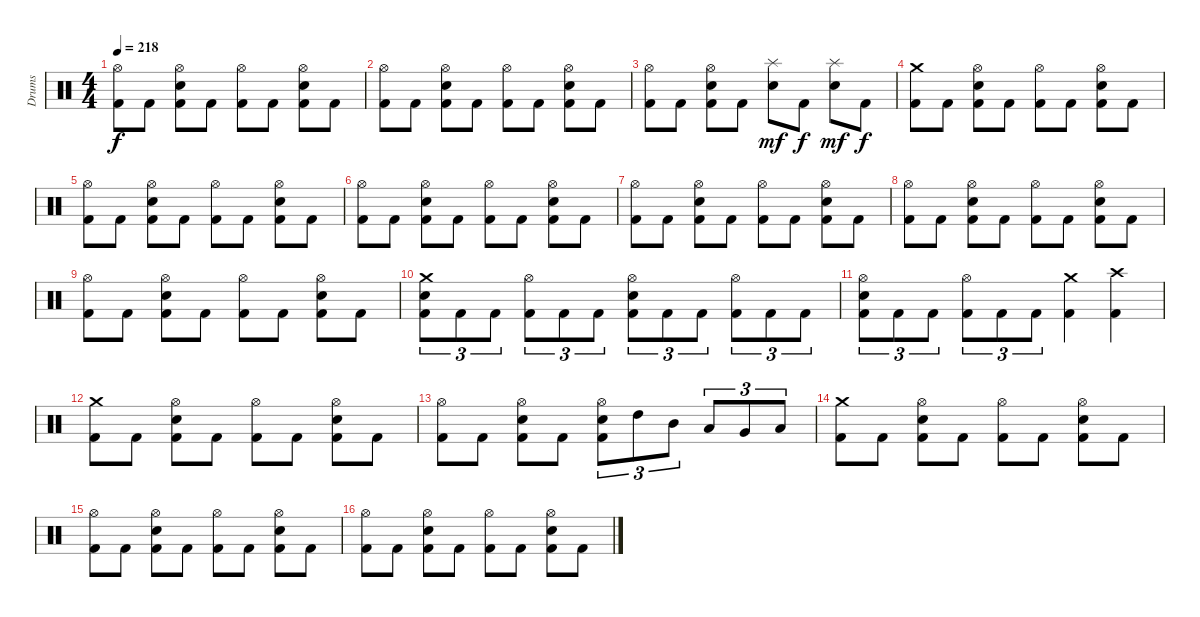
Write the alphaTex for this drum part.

\track ("Drums" "Drums") {instrument percussion}
\staff {score}
\articulation defaults
\ts (4 4)
\tempo 218
\clef neutral
\ks c
("Hi-Hat (open)" "Kick (hit) 2").8{dy f} "Kick (hit) 2".8 ("Hi-Hat (open)" "Snare (hit) 2" "Kick (hit) 2").8 "Kick (hit) 2".8 ("Hi-Hat (open)" "Kick (hit) 2").8 "Kick (hit) 2".8 ("Hi-Hat (open)" "Snare (hit) 2" "Kick (hit) 2").8 "Kick (hit) 2".8 |
("Hi-Hat (open)" "Kick (hit) 2").8 "Kick (hit) 2".8 ("Hi-Hat (open)" "Snare (hit) 2" "Kick (hit) 2").8 "Kick (hit) 2".8 ("Hi-Hat (open)" "Kick (hit) 2").8 "Kick (hit) 2".8 ("Hi-Hat (open)" "Snare (hit) 2" "Kick (hit) 2").8 "Kick (hit) 2".8 |
("Hi-Hat (open)" "Kick (hit) 2").8 "Kick (hit) 2".8 ("Hi-Hat (open)" "Snare (hit) 2" "Kick (hit) 2").8 "Kick (hit) 2".8 ("Splash (hit)" "Snare (hit) 2").8{dy mf} "Kick (hit) 2".8{dy f} ("Splash (hit)" "Snare (hit) 2").8{dy mf} "Kick (hit) 2".8{dy f} |
("Crash medium (hit)" "Kick (hit) 2").8 "Kick (hit) 2".8 ("Hi-Hat (open)" "Snare (hit) 2" "Kick (hit) 2").8 "Kick (hit) 2".8 ("Hi-Hat (open)" "Kick (hit) 2").8 "Kick (hit) 2".8 ("Hi-Hat (open)" "Snare (hit) 2" "Kick (hit) 2").8 "Kick (hit) 2".8 |
("Hi-Hat (open)" "Kick (hit) 2").8 "Kick (hit) 2".8 ("Hi-Hat (open)" "Snare (hit) 2" "Kick (hit) 2").8 "Kick (hit) 2".8 ("Hi-Hat (open)" "Kick (hit) 2").8 "Kick (hit) 2".8 ("Hi-Hat (open)" "Snare (hit) 2" "Kick (hit) 2").8 "Kick (hit) 2".8 |
("Hi-Hat (open)" "Kick (hit) 2").8 "Kick (hit) 2".8 ("Hi-Hat (open)" "Snare (hit) 2" "Kick (hit) 2").8 "Kick (hit) 2".8 ("Hi-Hat (open)" "Kick (hit) 2").8 "Kick (hit) 2".8 ("Hi-Hat (open)" "Snare (hit) 2" "Kick (hit) 2").8 "Kick (hit) 2".8 |
("Hi-Hat (open)" "Kick (hit) 2").8 "Kick (hit) 2".8 ("Hi-Hat (open)" "Snare (hit) 2" "Kick (hit) 2").8 "Kick (hit) 2".8 ("Hi-Hat (open)" "Kick (hit) 2").8 "Kick (hit) 2".8 ("Hi-Hat (open)" "Snare (hit) 2" "Kick (hit) 2").8 "Kick (hit) 2".8 |
("Hi-Hat (open)" "Kick (hit) 2").8 "Kick (hit) 2".8 ("Hi-Hat (open)" "Snare (hit) 2" "Kick (hit) 2").8 "Kick (hit) 2".8 ("Hi-Hat (open)" "Kick (hit) 2").8 "Kick (hit) 2".8 ("Hi-Hat (open)" "Snare (hit) 2" "Kick (hit) 2").8 "Kick (hit) 2".8 |
("Hi-Hat (open)" "Kick (hit) 2").8 "Kick (hit) 2".8 ("Hi-Hat (open)" "Snare (hit) 2" "Kick (hit) 2").8 "Kick (hit) 2".8 ("Hi-Hat (open)" "Kick (hit) 2").8 "Kick (hit) 2".8 ("Hi-Hat (open)" "Snare (hit) 2" "Kick (hit) 2").8 "Kick (hit) 2".8 |
("Crash medium (hit)" "Snare (hit) 2" "Kick (hit) 2").8{tu (3 2)} "Kick (hit) 2".8{tu (3 2)} "Kick (hit) 2".8{tu (3 2)} ("Hi-Hat (open)" "Kick (hit) 2").8{tu (3 2)} "Kick (hit) 2".8{tu (3 2)} "Kick (hit) 2".8{tu (3 2)} ("Hi-Hat (open)" "Snare (hit) 2" "Kick (hit) 2").8{tu (3 2)} "Kick (hit) 2".8{tu (3 2)} "Kick (hit) 2".8{tu (3 2)} ("Hi-Hat (open)" "Kick (hit) 2").8{tu (3 2)} "Kick (hit) 2".8{tu (3 2)} "Kick (hit) 2".8{tu (3 2)} |
("Hi-Hat (open)" "Snare (hit) 2" "Kick (hit) 2").8{tu (3 2)} "Kick (hit) 2".8{tu (3 2)} "Kick (hit) 2".8{tu (3 2)} ("Hi-Hat (open)" "Kick (hit) 2").8{tu (3 2)} "Kick (hit) 2".8{tu (3 2)} "Kick (hit) 2".8{tu (3 2)} ("Crash medium (hit)" "Kick (hit) 2").4 ("Crash high (hit)" "Kick (hit) 2").4 |
("Crash medium (hit)" "Kick (hit) 2").8 "Kick (hit) 2".8 ("Hi-Hat (open)" "Snare (hit) 2" "Kick (hit) 2").8 "Kick (hit) 2".8 ("Hi-Hat (open)" "Kick (hit) 2").8 "Kick (hit) 2".8 ("Hi-Hat (open)" "Snare (hit) 2" "Kick (hit) 2").8 "Kick (hit) 2".8 |
("Hi-Hat (open)" "Kick (hit) 2").8 "Kick (hit) 2".8 ("Hi-Hat (open)" "Snare (hit) 2" "Kick (hit) 2").8 "Kick (hit) 2".8 ("Hi-Hat (open)" "Snare (hit) 2" "Kick (hit) 2").8{tu (3 2)} "High Tom (hit)".8{tu (3 2)} "Mid Tom (hit)".8{tu (3 2)} "Low Tom (hit)".8{tu (3 2)} "Very Low Tom (hit)".8{tu (3 2)} "Low Floor Tom (hit)".8{tu (3 2)} |
("Crash medium (hit)" "Kick (hit) 2").8 "Kick (hit) 2".8 ("Hi-Hat (open)" "Snare (hit) 2" "Kick (hit) 2").8 "Kick (hit) 2".8 ("Hi-Hat (open)" "Kick (hit) 2").8 "Kick (hit) 2".8 ("Hi-Hat (open)" "Snare (hit) 2" "Kick (hit) 2").8 "Kick (hit) 2".8 |
("Hi-Hat (open)" "Kick (hit) 2").8 "Kick (hit) 2".8 ("Hi-Hat (open)" "Snare (hit) 2" "Kick (hit) 2").8 "Kick (hit) 2".8 ("Hi-Hat (open)" "Kick (hit) 2").8 "Kick (hit) 2".8 ("Hi-Hat (open)" "Snare (hit) 2" "Kick (hit) 2").8 "Kick (hit) 2".8 |
("Hi-Hat (open)" "Kick (hit) 2").8 "Kick (hit) 2".8 ("Hi-Hat (open)" "Snare (hit) 2" "Kick (hit) 2").8 "Kick (hit) 2".8 ("Hi-Hat (open)" "Kick (hit) 2").8 "Kick (hit) 2".8 ("Hi-Hat (open)" "Snare (hit) 2" "Kick (hit) 2").8 "Kick (hit) 2".8
